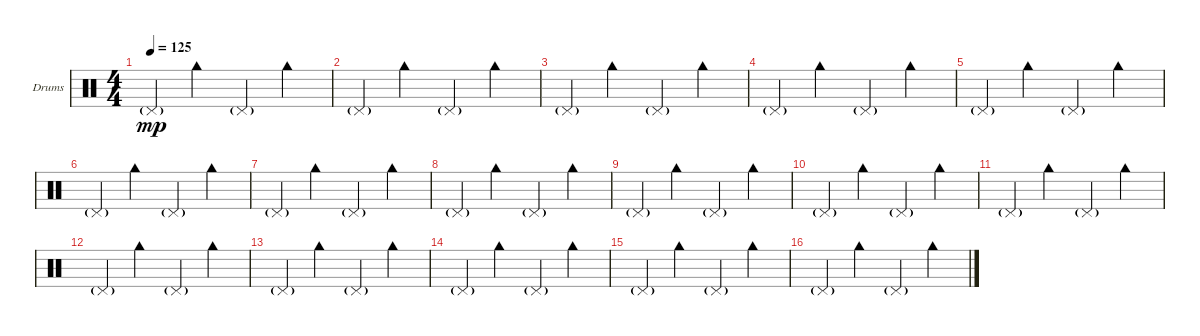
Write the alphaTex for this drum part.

\defaultSystemsLayout 4
\bracketExtendMode groupsimilarinstruments
\firstSystemTrackNameOrientation horizontal
\otherSystemsTrackNameOrientation horizontal
\track ("Drumkit" "Drums") {instrument percussion}
\staff {score}
\articulation defaults
\ts (4 4)
\tempo 125
\clef neutral
\ks c "Pedal Hi-Hat (hit)"{g}.4{dy mp} "Cowbell high (hit)".4 "Pedal Hi-Hat (hit)"{g}.4 "Cowbell high (hit)".4
|
"Pedal Hi-Hat (hit)"{g}.4 "Cowbell high (hit)".4 "Pedal Hi-Hat (hit)"{g}.4 "Cowbell high (hit)".4 |
"Pedal Hi-Hat (hit)"{g}.4 "Cowbell high (hit)".4 "Pedal Hi-Hat (hit)"{g}.4 "Cowbell high (hit)".4 |
"Pedal Hi-Hat (hit)"{g}.4 "Cowbell high (hit)".4 "Pedal Hi-Hat (hit)"{g}.4 "Cowbell high (hit)".4 |
"Pedal Hi-Hat (hit)"{g}.4 "Cowbell high (hit)".4 "Pedal Hi-Hat (hit)"{g}.4 "Cowbell high (hit)".4 |
"Pedal Hi-Hat (hit)"{g}.4 "Cowbell high (hit)".4 "Pedal Hi-Hat (hit)"{g}.4 "Cowbell high (hit)".4 |
"Pedal Hi-Hat (hit)"{g}.4 "Cowbell high (hit)".4 "Pedal Hi-Hat (hit)"{g}.4 "Cowbell high (hit)".4 |
"Pedal Hi-Hat (hit)"{g}.4 "Cowbell high (hit)".4 "Pedal Hi-Hat (hit)"{g}.4 "Cowbell high (hit)".4 |
"Pedal Hi-Hat (hit)"{g}.4 "Cowbell high (hit)".4 "Pedal Hi-Hat (hit)"{g}.4 "Cowbell high (hit)".4 |
"Pedal Hi-Hat (hit)"{g}.4 "Cowbell high (hit)".4 "Pedal Hi-Hat (hit)"{g}.4 "Cowbell high (hit)".4 |
"Pedal Hi-Hat (hit)"{g}.4 "Cowbell high (hit)".4 "Pedal Hi-Hat (hit)"{g}.4 "Cowbell high (hit)".4 |
"Pedal Hi-Hat (hit)"{g}.4 "Cowbell high (hit)".4 "Pedal Hi-Hat (hit)"{g}.4 "Cowbell high (hit)".4 |
"Pedal Hi-Hat (hit)"{g}.4 "Cowbell high (hit)".4 "Pedal Hi-Hat (hit)"{g}.4 "Cowbell high (hit)".4 |
"Pedal Hi-Hat (hit)"{g}.4 "Cowbell high (hit)".4 "Pedal Hi-Hat (hit)"{g}.4 "Cowbell high (hit)".4 |
"Pedal Hi-Hat (hit)"{g}.4 "Cowbell high (hit)".4 "Pedal Hi-Hat (hit)"{g}.4 "Cowbell high (hit)".4 |
"Pedal Hi-Hat (hit)"{g}.4 "Cowbell high (hit)".4 "Pedal Hi-Hat (hit)"{g}.4 "Cowbell high (hit)".4
